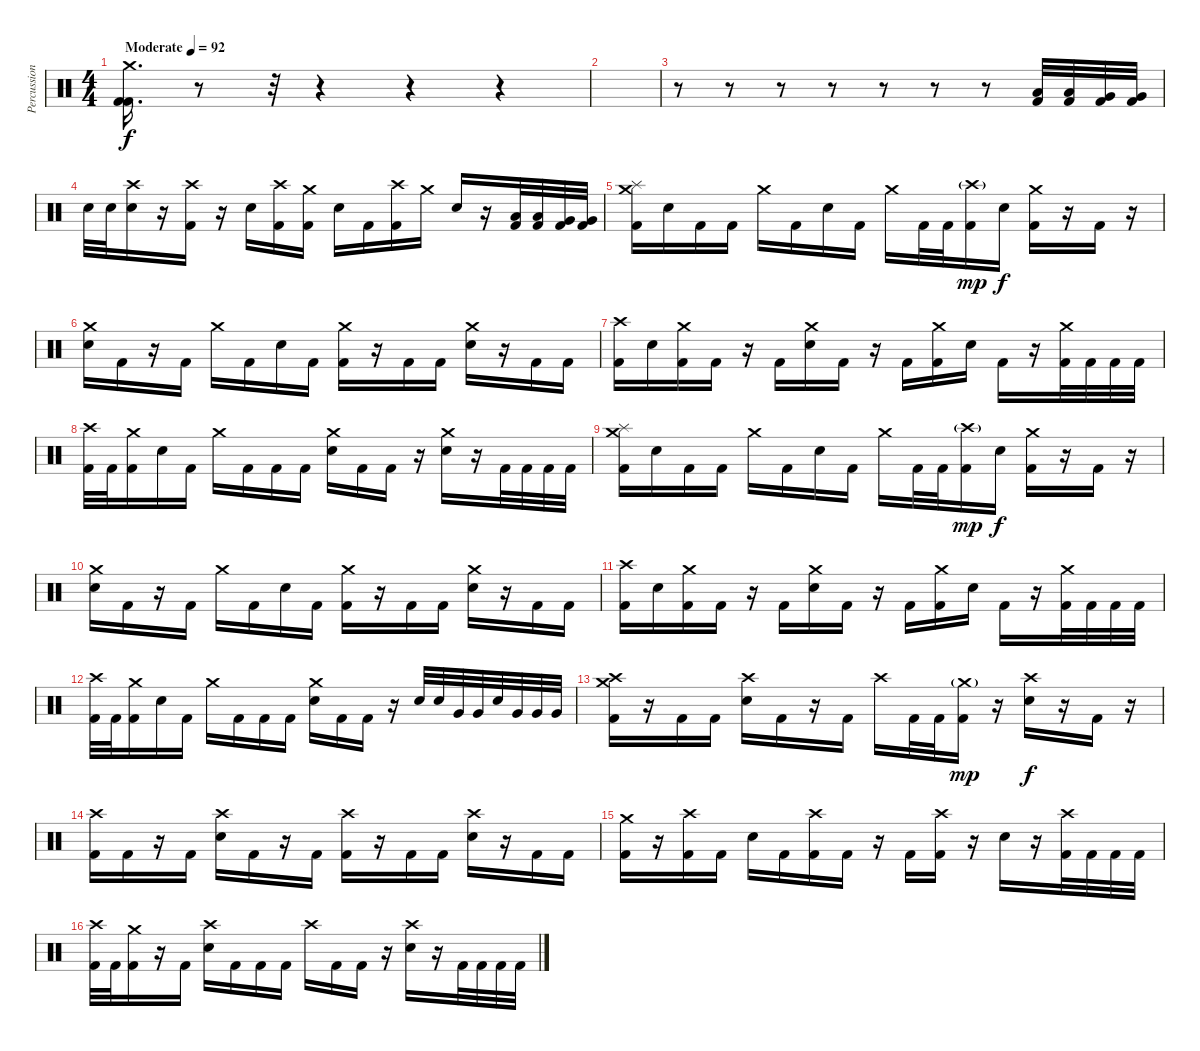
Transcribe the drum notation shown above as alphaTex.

\track ("Percussion" "Percussion") {instrument percussion}
\staff {score}
\articulation defaults
\ts (4 4)
\tempo (92 "Moderate")
\clef neutral
\ks c
("Kick (hit) 2" "Crash medium (hit)" "Kick (hit) 2").16{d dy f} r.8{volume 0} r.32 r.4 r.4 r.4 |
|
r.8 r.8 r.8 r.8 r.8 r.8 r.8 ("Low Tom (hit)" "Kick (hit) 2").32{volume 14} ("Low Tom (hit)" "Kick (hit) 2").32 ("Very Low Tom (hit)" "Kick (hit) 2").32 ("Very Low Tom (hit)" "Kick (hit) 2").32 |
"Electric Snare (hit)".32 "Electric Snare (hit)".32 ("Crash high (hit)" "Electric Snare (hit)").16 r.16 ("Crash high (hit)" "Kick (hit) 2").16 r.16 "Electric Snare (hit)".16 ("Crash high (hit)" "Kick (hit) 2").16 ("Crash medium (hit)" "Kick (hit) 2").16 "Electric Snare (hit)".16 "Kick (hit) 2".16 ("Crash high (hit)" "Kick (hit) 2").16 "Crash medium (hit)".16 "Electric Snare (hit)".16 r.16 ("Low Tom (hit)" "Kick (hit) 2").32 ("Low Tom (hit)" "Kick (hit) 2").32 ("Very Low Tom (hit)" "Kick (hit) 2").32 ("Very Low Tom (hit)" "Kick (hit) 2").32 |
("Splash (hit)" "Crash medium (hit)" "Kick (hit) 2").16 "Electric Snare (hit)".16 "Kick (hit) 2".16 "Kick (hit) 2".16 "Crash medium (hit)".16 "Kick (hit) 2".16 "Electric Snare (hit)".16 "Kick (hit) 2".16 "Crash medium (hit)".16 "Kick (hit) 2".32 "Kick (hit) 2".32 ("Crash high (hit)"{g} "Kick (hit) 2").16{dy mp} "Electric Snare (hit)".16{dy f} ("Crash medium (hit)" "Kick (hit) 2").16 r.16 "Kick (hit) 2".16 r.16 |
("Crash medium (hit)" "Electric Snare (hit)").16 "Kick (hit) 2".16 r.16 "Kick (hit) 2".16 "Crash medium (hit)".16 "Kick (hit) 2".16 "Electric Snare (hit)".16 "Kick (hit) 2".16 ("Crash medium (hit)" "Kick (hit) 2").16 r.16 "Kick (hit) 2".16 "Kick (hit) 2".16 ("Crash medium (hit)" "Electric Snare (hit)").16 r.16 "Kick (hit) 2".16 "Kick (hit) 2".16 |
("Crash high (hit)" "Kick (hit) 2").16 "Electric Snare (hit)".16 ("Crash medium (hit)" "Kick (hit) 2").16 "Kick (hit) 2".16 r.16 "Kick (hit) 2".16 ("Crash medium (hit)" "Electric Snare (hit)").16 "Kick (hit) 2".16 r.16 "Kick (hit) 2".16 ("Crash medium (hit)" "Kick (hit) 2").16 "Electric Snare (hit)".16 "Kick (hit) 2".16 r.16 ("Crash medium (hit)" "Kick (hit) 2").32 "Kick (hit) 2".32 "Kick (hit) 2".32 "Kick (hit) 2".32 |
("Crash high (hit)" "Kick (hit) 2").32 "Kick (hit) 2".32 ("Crash medium (hit)" "Kick (hit) 2").16 "Electric Snare (hit)".16 "Kick (hit) 2".16 "Crash medium (hit)".16 "Kick (hit) 2".16 "Kick (hit) 2".16 "Kick (hit) 2".16 ("Crash medium (hit)" "Electric Snare (hit)").16 "Kick (hit) 2".16 "Kick (hit) 2".16 r.16 ("Crash medium (hit)" "Electric Snare (hit)").16 r.16 "Kick (hit) 2".32 "Kick (hit) 2".32 "Kick (hit) 2".32 "Kick (hit) 2".32 |
("Splash (hit)" "Crash medium (hit)" "Kick (hit) 2").16 "Electric Snare (hit)".16 "Kick (hit) 2".16 "Kick (hit) 2".16 "Crash medium (hit)".16 "Kick (hit) 2".16 "Electric Snare (hit)".16 "Kick (hit) 2".16 "Crash medium (hit)".16 "Kick (hit) 2".32 "Kick (hit) 2".32 ("Crash high (hit)"{g} "Kick (hit) 2").16{dy mp} "Electric Snare (hit)".16{dy f} ("Crash medium (hit)" "Kick (hit) 2").16 r.16 "Kick (hit) 2".16 r.16 |
("Crash medium (hit)" "Electric Snare (hit)").16 "Kick (hit) 2".16 r.16 "Kick (hit) 2".16 "Crash medium (hit)".16 "Kick (hit) 2".16 "Electric Snare (hit)".16 "Kick (hit) 2".16 ("Crash medium (hit)" "Kick (hit) 2").16 r.16 "Kick (hit) 2".16 "Kick (hit) 2".16 ("Crash medium (hit)" "Electric Snare (hit)").16 r.16 "Kick (hit) 2".16 "Kick (hit) 2".16 |
("Crash high (hit)" "Kick (hit) 2").16 "Electric Snare (hit)".16 ("Crash medium (hit)" "Kick (hit) 2").16 "Kick (hit) 2".16 r.16 "Kick (hit) 2".16 ("Crash medium (hit)" "Electric Snare (hit)").16 "Kick (hit) 2".16 r.16 "Kick (hit) 2".16 ("Crash medium (hit)" "Kick (hit) 2").16 "Electric Snare (hit)".16 "Kick (hit) 2".16 r.16 ("Crash medium (hit)" "Kick (hit) 2").32 "Kick (hit) 2".32 "Kick (hit) 2".32 "Kick (hit) 2".32 |
("Crash high (hit)" "Kick (hit) 2").32 "Kick (hit) 2".32 ("Crash medium (hit)" "Kick (hit) 2").16 "Electric Snare (hit)".16 "Kick (hit) 2".16 "Crash medium (hit)".16 "Kick (hit) 2".16 "Kick (hit) 2".16 "Kick (hit) 2".16 ("Crash medium (hit)" "Electric Snare (hit)").16 "Kick (hit) 2".16 "Kick (hit) 2".16 r.16 "Electric Snare (hit)".32 "Electric Snare (hit)".32 "Very Low Tom (hit)".32 "Very Low Tom (hit)".32 "Electric Snare (hit)".32 "Very Low Tom (hit)".32 "Very Low Tom (hit)".32 "Very Low Tom (hit)".32 |
("Crash high (hit)" "Crash medium (hit)" "Kick (hit) 2").16 r.16 "Kick (hit) 2".16 "Kick (hit) 2".16 ("Crash high (hit)" "Electric Snare (hit)").16 "Kick (hit) 2".16 r.16 "Kick (hit) 2".16 "Crash high (hit)".16 "Kick (hit) 2".32 "Kick (hit) 2".32 ("Crash medium (hit)"{g} "Kick (hit) 2").16{dy mp} r.16 ("Crash high (hit)" "Electric Snare (hit)").16{dy f} r.16 "Kick (hit) 2".16 r.16 |
("Crash high (hit)" "Kick (hit) 2").16 "Kick (hit) 2".16 r.16 "Kick (hit) 2".16 ("Crash high (hit)" "Electric Snare (hit)").16 "Kick (hit) 2".16 r.16 "Kick (hit) 2".16 ("Crash high (hit)" "Kick (hit) 2").16 r.16 "Kick (hit) 2".16 "Kick (hit) 2".16 ("Crash high (hit)" "Electric Snare (hit)").16 r.16 "Kick (hit) 2".16 "Kick (hit) 2".16 |
("Crash medium (hit)" "Kick (hit) 2").16 r.16 ("Crash high (hit)" "Kick (hit) 2").16 "Kick (hit) 2".16 "Electric Snare (hit)".16 "Kick (hit) 2".16 ("Crash high (hit)" "Kick (hit) 2").16 "Kick (hit) 2".16 r.16 "Kick (hit) 2".16 ("Crash high (hit)" "Kick (hit) 2").16 r.16 "Electric Snare (hit)".16 r.16 ("Crash high (hit)" "Kick (hit) 2").32 "Kick (hit) 2".32 "Kick (hit) 2".32 "Kick (hit) 2".32 |
("Crash high (hit)" "Kick (hit) 2").32 "Kick (hit) 2".32 ("Crash medium (hit)" "Kick (hit) 2").16 r.16 "Kick (hit) 2".16 ("Crash high (hit)" "Electric Snare (hit)").16 "Kick (hit) 2".16 "Kick (hit) 2".16 "Kick (hit) 2".16 "Crash high (hit)".16 "Kick (hit) 2".16 "Kick (hit) 2".16 r.16 ("Crash high (hit)" "Electric Snare (hit)").16 r.16 "Kick (hit) 2".32 "Kick (hit) 2".32 "Kick (hit) 2".32 "Kick (hit) 2".32
